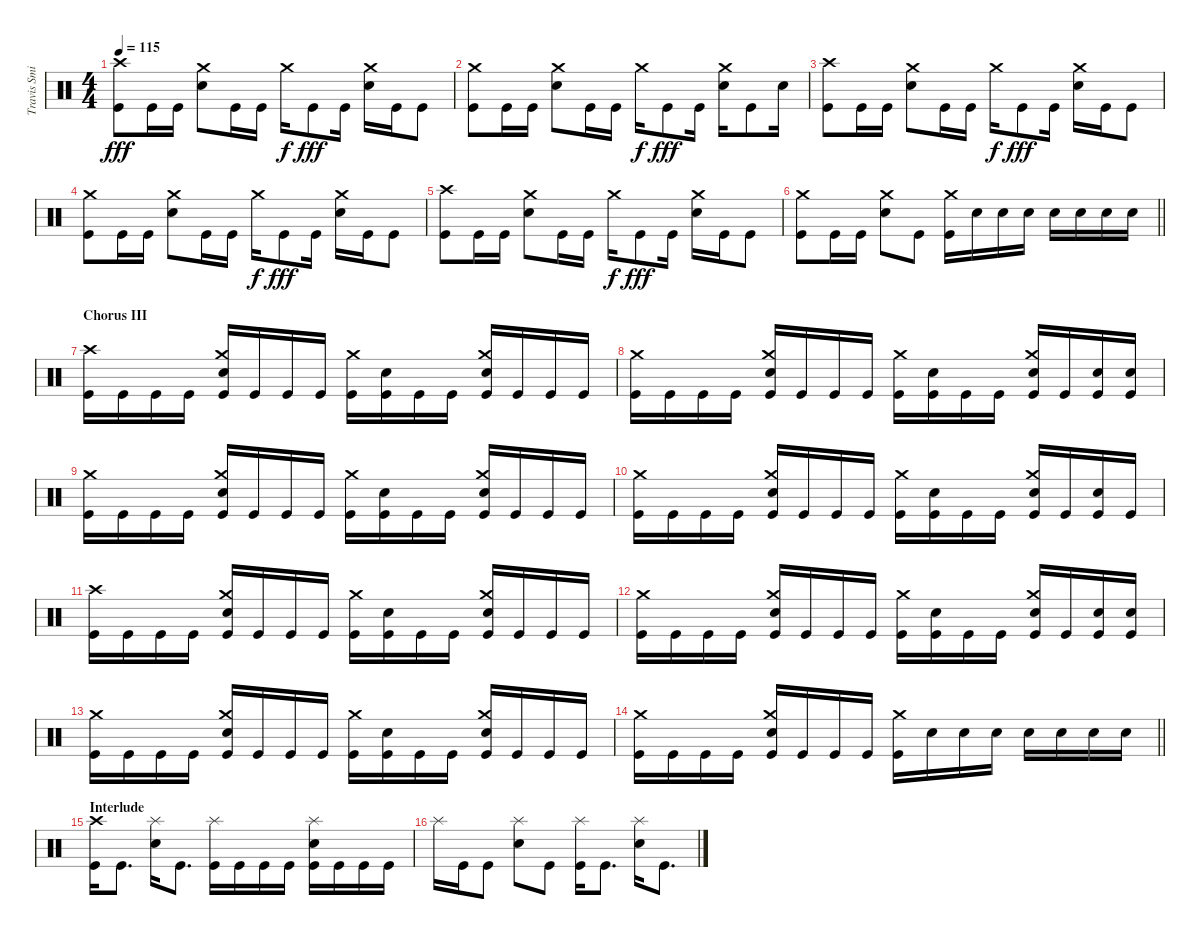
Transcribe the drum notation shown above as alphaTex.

\track ("Travis Smith" "Travis Smi") {instrument percussion}
\staff {score}
\articulation defaults
\ts (4 4)
\tempo 115
\clef neutral
\ks c
("Crash high (hit)" "Kick (hit)").8{dy fff} "Kick (hit)".16 "Kick (hit)".16 ("Crash medium (hit)" "Snare (hit) 2").8 "Kick (hit)".16 "Kick (hit)".16 "Crash medium (hit)".16{dy f} "Kick (hit)".8{dy fff} "Kick (hit)".16 ("Crash medium (hit)" "Snare (hit) 2").16 "Kick (hit)".16 "Kick (hit)".8 |
("Crash medium (hit)" "Kick (hit)").8 "Kick (hit)".16 "Kick (hit)".16 ("Crash medium (hit)" "Snare (hit) 2").8 "Kick (hit)".16 "Kick (hit)".16 "Crash medium (hit)".16{dy f} "Kick (hit)".8{dy fff} "Kick (hit)".16 ("Crash medium (hit)" "Snare (hit) 2").16 "Kick (hit)".8 "Snare (hit) 2".16 |
("Crash high (hit)" "Kick (hit)").8 "Kick (hit)".16 "Kick (hit)".16 ("Crash medium (hit)" "Snare (hit) 2").8 "Kick (hit)".16 "Kick (hit)".16 "Crash medium (hit)".16{dy f} "Kick (hit)".8{dy fff} "Kick (hit)".16 ("Crash medium (hit)" "Snare (hit) 2").16 "Kick (hit)".16 "Kick (hit)".8 |
("Crash medium (hit)" "Kick (hit)").8 "Kick (hit)".16 "Kick (hit)".16 ("Crash medium (hit)" "Snare (hit) 2").8 "Kick (hit)".16 "Kick (hit)".16 "Crash medium (hit)".16{dy f} "Kick (hit)".8{dy fff} "Kick (hit)".16 ("Crash medium (hit)" "Snare (hit) 2").16 "Kick (hit)".16 "Kick (hit)".8 |
("Crash high (hit)" "Kick (hit)").8 "Kick (hit)".16 "Kick (hit)".16 ("Crash medium (hit)" "Snare (hit) 2").8 "Kick (hit)".16 "Kick (hit)".16 "Crash medium (hit)".16{dy f} "Kick (hit)".8{dy fff} "Kick (hit)".16 ("Crash medium (hit)" "Snare (hit) 2").16 "Kick (hit)".16 "Kick (hit)".8 |
\barLineRight lightlight
("Crash medium (hit)" "Kick (hit)").8 "Kick (hit)".16 "Kick (hit)".16 ("Crash medium (hit)" "Snare (hit) 2").8 "Kick (hit)".8 ("Crash medium (hit)" "Kick (hit)").16 "Snare (hit) 2".16 "Snare (hit) 2".16 "Snare (hit) 2".16 "Snare (hit) 2".16 "Snare (hit) 2".16 "Snare (hit) 2".16 "Snare (hit) 2".16 |
\section ("" "Chorus III")
("Crash high (hit)" "Kick (hit)").16 "Kick (hit)".16 "Kick (hit)".16 "Kick (hit)".16 ("Crash medium (hit)" "Snare (hit) 2" "Kick (hit)").16 "Kick (hit)".16 "Kick (hit)".16 "Kick (hit)".16 ("Crash medium (hit)" "Kick (hit)").16 ("Snare (hit) 2" "Kick (hit)").16 "Kick (hit)".16 "Kick (hit)".16 ("Crash medium (hit)" "Snare (hit) 2" "Kick (hit)").16 "Kick (hit)".16 "Kick (hit)".16 "Kick (hit)".16 |
("Crash medium (hit)" "Kick (hit)").16 "Kick (hit)".16 "Kick (hit)".16 "Kick (hit)".16 ("Crash medium (hit)" "Snare (hit) 2" "Kick (hit)").16 "Kick (hit)".16 "Kick (hit)".16 "Kick (hit)".16 ("Crash medium (hit)" "Kick (hit)").16 ("Snare (hit) 2" "Kick (hit)").16 "Kick (hit)".16 "Kick (hit)".16 ("Crash medium (hit)" "Snare (hit) 2" "Kick (hit)").16 "Kick (hit)".16 ("Snare (hit) 2" "Kick (hit)").16 ("Snare (hit) 2" "Kick (hit)").16 |
("Crash medium (hit)" "Kick (hit)").16 "Kick (hit)".16 "Kick (hit)".16 "Kick (hit)".16 ("Crash medium (hit)" "Snare (hit) 2" "Kick (hit)").16 "Kick (hit)".16 "Kick (hit)".16 "Kick (hit)".16 ("Crash medium (hit)" "Kick (hit)").16 ("Snare (hit) 2" "Kick (hit)").16 "Kick (hit)".16 "Kick (hit)".16 ("Crash medium (hit)" "Snare (hit) 2" "Kick (hit)").16 "Kick (hit)".16 "Kick (hit)".16 "Kick (hit)".16 |
("Crash medium (hit)" "Kick (hit)").16 "Kick (hit)".16 "Kick (hit)".16 "Kick (hit)".16 ("Crash medium (hit)" "Snare (hit) 2" "Kick (hit)").16 "Kick (hit)".16 "Kick (hit)".16 "Kick (hit)".16 ("Crash medium (hit)" "Kick (hit)").16 ("Snare (hit) 2" "Kick (hit)").16 "Kick (hit)".16 "Kick (hit)".16 ("Crash medium (hit)" "Snare (hit) 2" "Kick (hit)").16 "Kick (hit)".16 ("Snare (hit) 2" "Kick (hit)").16 "Kick (hit)".16 |
("Crash high (hit)" "Kick (hit)").16 "Kick (hit)".16 "Kick (hit)".16 "Kick (hit)".16 ("Crash medium (hit)" "Snare (hit) 2" "Kick (hit)").16 "Kick (hit)".16 "Kick (hit)".16 "Kick (hit)".16 ("Crash medium (hit)" "Kick (hit)").16 ("Snare (hit) 2" "Kick (hit)").16 "Kick (hit)".16 "Kick (hit)".16 ("Crash medium (hit)" "Snare (hit) 2" "Kick (hit)").16 "Kick (hit)".16 "Kick (hit)".16 "Kick (hit)".16 |
("Crash medium (hit)" "Kick (hit)").16 "Kick (hit)".16 "Kick (hit)".16 "Kick (hit)".16 ("Crash medium (hit)" "Snare (hit) 2" "Kick (hit)").16 "Kick (hit)".16 "Kick (hit)".16 "Kick (hit)".16 ("Crash medium (hit)" "Kick (hit)").16 ("Snare (hit) 2" "Kick (hit)").16 "Kick (hit)".16 "Kick (hit)".16 ("Crash medium (hit)" "Snare (hit) 2" "Kick (hit)").16 "Kick (hit)".16 ("Snare (hit) 2" "Kick (hit)").16 ("Snare (hit) 2" "Kick (hit)").16 |
("Crash medium (hit)" "Kick (hit)").16 "Kick (hit)".16 "Kick (hit)".16 "Kick (hit)".16 ("Crash medium (hit)" "Snare (hit) 2" "Kick (hit)").16 "Kick (hit)".16 "Kick (hit)".16 "Kick (hit)".16 ("Crash medium (hit)" "Kick (hit)").16 ("Snare (hit) 2" "Kick (hit)").16 "Kick (hit)".16 "Kick (hit)".16 ("Crash medium (hit)" "Snare (hit) 2" "Kick (hit)").16 "Kick (hit)".16 "Kick (hit)".16 "Kick (hit)".16 |
\barLineRight lightlight
("Crash medium (hit)" "Kick (hit)").16 "Kick (hit)".16 "Kick (hit)".16 "Kick (hit)".16 ("Crash medium (hit)" "Snare (hit) 2" "Kick (hit)").16 "Kick (hit)".16 "Kick (hit)".16 "Kick (hit)".16 ("Crash medium (hit)" "Kick (hit)").16 "Snare (hit) 2".16 "Snare (hit) 2".16 "Snare (hit) 2".16 "Snare (hit) 2".16 "Snare (hit) 2".16 "Snare (hit) 2".16 "Snare (hit) 2".16 |
\section ("" "Interlude")
("Crash high (hit)" "Kick (hit)").16 "Kick (hit)".8{d} ("Splash (hit)" "Snare (hit) 2").16 "Kick (hit)".8{d} ("Splash (hit)" "Kick (hit)").16 "Kick (hit)".16 "Kick (hit)".16 "Kick (hit)".16 ("Splash (hit)" "Snare (hit) 2" "Kick (hit)").16 "Kick (hit)".16 "Kick (hit)".16 "Kick (hit)".16 |
"Splash (hit)".16 "Kick (hit)".16 "Kick (hit)".8 ("Splash (hit)" "Snare (hit) 2").8 "Kick (hit)".8 ("Splash (hit)" "Kick (hit)").16 "Kick (hit)".8{d} ("Splash (hit)" "Snare (hit) 2").16 "Kick (hit)".8{d}
